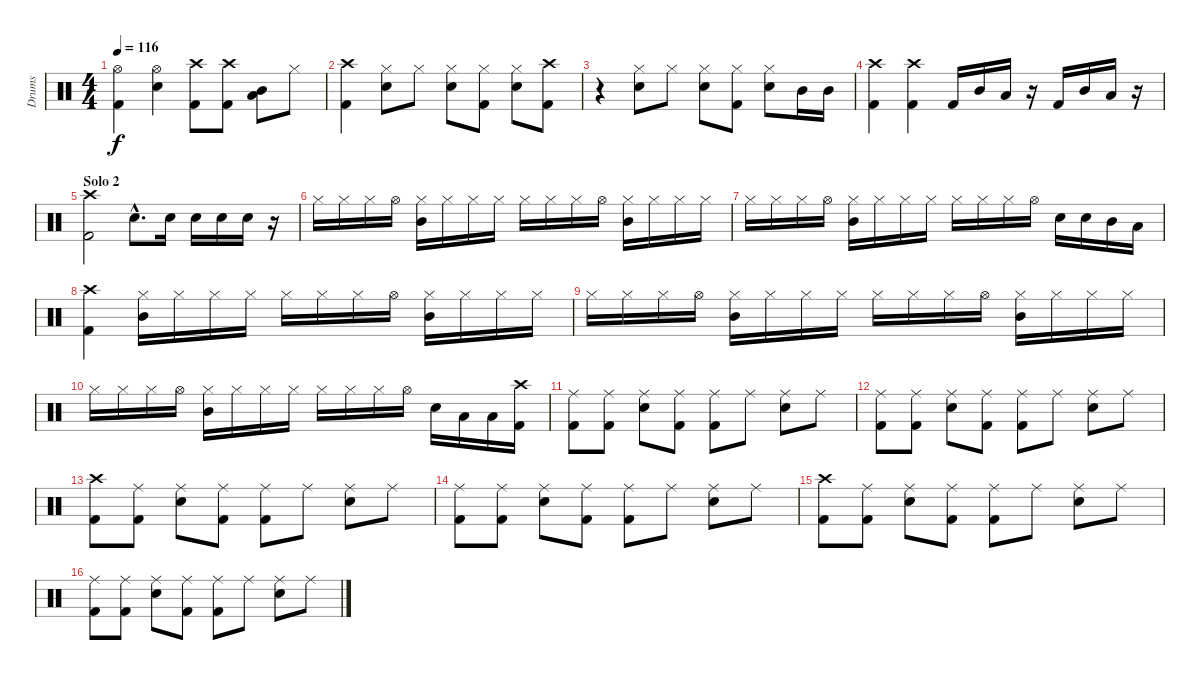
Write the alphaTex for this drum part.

\track ("Drums" "Drums") {instrument percussion}
\staff {score}
\articulation defaults
\ts (4 4)
\tempo 116
\clef neutral
\ks c
("Hi-Hat (open)" "Kick (hit) 2").4{dy f} ("Hi-Hat (open)" "Snare (hit) 2").4 ("Crash high (hit)" "Kick (hit) 2").8 ("Crash high (hit)" "Kick (hit) 2").8 ("Low Tom (hit)" "Mid Tom (hit)").8 "Hi-Hat (closed)".8 |
("Crash high (hit)" "Kick (hit) 2").4 ("Hi-Hat (closed)" "Snare (hit) 2").8 "Hi-Hat (closed)".8 ("Hi-Hat (closed)" "Snare (hit) 2").8 ("Hi-Hat (closed)" "Kick (hit) 2").8 ("Hi-Hat (closed)" "Snare (hit) 2").8 ("Crash high (hit)" "Kick (hit) 2").8 |
r.4 ("Hi-Hat (closed)" "Snare (hit) 2").8 "Hi-Hat (closed)".8 ("Hi-Hat (closed)" "Snare (hit) 2").8 ("Hi-Hat (closed)" "Kick (hit) 2").8 ("Hi-Hat (closed)" "Snare (hit) 2").8 "Mid Tom (hit)".16 "Mid Tom (hit)".16 |
("Crash high (hit)" "Kick (hit) 2").4 ("Crash high (hit)" "Kick (hit) 2").4 "Kick (hit) 2".16 "Mid Tom (hit)".16 "Low Tom (hit)".16 r.16 "Kick (hit) 2".16 "Mid Tom (hit)".16 "Low Tom (hit)".16 r.16 |
\section ("" "Solo 2")
("Crash high (hit)" "Kick (hit) 2").2 "Snare (hit) 2"{hac}.8{d} "Snare (hit) 2".16 "Snare (hit) 2".16 "Snare (hit) 2".16 "Snare (hit) 2".16 r.16 |
"Hi-Hat (closed)".16 "Hi-Hat (closed)".16 "Hi-Hat (closed)".16 "Hi-Hat (open)".16 ("Hi-Hat (closed)" "Mid Tom (hit)").16 "Hi-Hat (closed)".16 "Hi-Hat (closed)".16 "Hi-Hat (closed)".16 "Hi-Hat (closed)".16 "Hi-Hat (closed)".16 "Hi-Hat (closed)".16 "Hi-Hat (open)".16 ("Hi-Hat (closed)" "Mid Tom (hit)").16 "Hi-Hat (closed)".16 "Hi-Hat (closed)".16 "Hi-Hat (closed)".16 |
"Hi-Hat (closed)".16 "Hi-Hat (closed)".16 "Hi-Hat (closed)".16 "Hi-Hat (open)".16 ("Hi-Hat (closed)" "Mid Tom (hit)").16 "Hi-Hat (closed)".16 "Hi-Hat (closed)".16 "Hi-Hat (closed)".16 "Hi-Hat (closed)".16 "Hi-Hat (closed)".16 "Hi-Hat (closed)".16 "Hi-Hat (open)".16 "Snare (hit) 2".16 "Snare (hit) 2".16 "Mid Tom (hit)".16 "Low Tom (hit)".16 |
("Crash high (hit)" "Kick (hit) 2").4 ("Hi-Hat (closed)" "Mid Tom (hit)").16 "Hi-Hat (closed)".16 "Hi-Hat (closed)".16 "Hi-Hat (closed)".16 "Hi-Hat (closed)".16 "Hi-Hat (closed)".16 "Hi-Hat (closed)".16 "Hi-Hat (open)".16 ("Hi-Hat (closed)" "Mid Tom (hit)").16 "Hi-Hat (closed)".16 "Hi-Hat (closed)".16 "Hi-Hat (closed)".16 |
"Hi-Hat (closed)".16 "Hi-Hat (closed)".16 "Hi-Hat (closed)".16 "Hi-Hat (open)".16 ("Hi-Hat (closed)" "Mid Tom (hit)").16 "Hi-Hat (closed)".16 "Hi-Hat (closed)".16 "Hi-Hat (closed)".16 "Hi-Hat (closed)".16 "Hi-Hat (closed)".16 "Hi-Hat (closed)".16 "Hi-Hat (open)".16 ("Hi-Hat (closed)" "Mid Tom (hit)").16 "Hi-Hat (closed)".16 "Hi-Hat (closed)".16 "Hi-Hat (closed)".16 |
"Hi-Hat (closed)".16 "Hi-Hat (closed)".16 "Hi-Hat (closed)".16 "Hi-Hat (open)".16 ("Hi-Hat (closed)" "Mid Tom (hit)").16 "Hi-Hat (closed)".16 "Hi-Hat (closed)".16 "Hi-Hat (closed)".16 "Hi-Hat (closed)".16 "Hi-Hat (closed)".16 "Hi-Hat (closed)".16 "Hi-Hat (open)".16 "Snare (hit) 2".16 "Low Tom (hit)".16 "Low Tom (hit)".16 ("Crash high (hit)" "Kick (hit) 2").16 |
("Ride (middle)" "Kick (hit) 2").8 ("Ride (middle)" "Kick (hit) 2").8 ("Ride (middle)" "Snare (hit) 2").8 ("Ride (middle)" "Kick (hit) 2").8 ("Ride (middle)" "Kick (hit) 2").8 "Ride (middle)".8 ("Ride (middle)" "Snare (hit) 2").8 "Ride (middle)".8 |
("Ride (middle)" "Kick (hit) 2").8 ("Ride (middle)" "Kick (hit) 2").8 ("Ride (middle)" "Snare (hit) 2").8 ("Ride (middle)" "Kick (hit) 2").8 ("Ride (middle)" "Kick (hit) 2").8 "Ride (middle)".8 ("Ride (middle)" "Snare (hit) 2").8 "Ride (middle)".8 |
("Crash high (hit)" "Kick (hit) 2").8 ("Ride (middle)" "Kick (hit) 2").8 ("Ride (middle)" "Snare (hit) 2").8 ("Ride (middle)" "Kick (hit) 2").8 ("Ride (middle)" "Kick (hit) 2").8 "Ride (middle)".8 ("Ride (middle)" "Snare (hit) 2").8 "Ride (middle)".8 |
("Ride (middle)" "Kick (hit) 2").8 ("Ride (middle)" "Kick (hit) 2").8 ("Ride (middle)" "Snare (hit) 2").8 ("Ride (middle)" "Kick (hit) 2").8 ("Ride (middle)" "Kick (hit) 2").8 "Ride (middle)".8 ("Ride (middle)" "Snare (hit) 2").8 "Ride (middle)".8 |
("Crash high (hit)" "Kick (hit) 2").8 ("Ride (middle)" "Kick (hit) 2").8 ("Ride (middle)" "Snare (hit) 2").8 ("Ride (middle)" "Kick (hit) 2").8 ("Ride (middle)" "Kick (hit) 2").8 "Ride (middle)".8 ("Ride (middle)" "Snare (hit) 2").8 "Ride (middle)".8 |
("Ride (middle)" "Kick (hit) 2").8 ("Ride (middle)" "Kick (hit) 2").8 ("Ride (middle)" "Snare (hit) 2").8 ("Ride (middle)" "Kick (hit) 2").8 ("Ride (middle)" "Kick (hit) 2").8 "Ride (middle)".8 ("Ride (middle)" "Snare (hit) 2").8 "Ride (middle)".8
